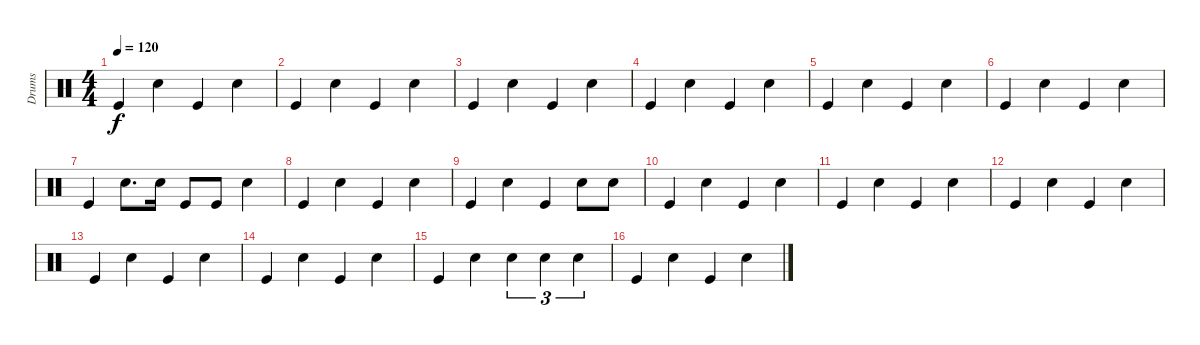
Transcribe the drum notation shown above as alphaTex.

\track ("Drums" "Drums") {instrument percussion}
\staff {score}
\articulation defaults
\ts (4 4)
\tempo 120
\clef neutral
\ks c "Kick (hit)".4{dy f} "Snare (hit) 2".4 "Kick (hit)".4 "Snare (hit) 2".4
|
"Kick (hit)".4 "Snare (hit) 2".4 "Kick (hit)".4 "Snare (hit) 2".4 |
"Kick (hit)".4 "Snare (hit) 2".4 "Kick (hit)".4 "Snare (hit) 2".4 |
"Kick (hit)".4 "Snare (hit) 2".4 "Kick (hit)".4 "Snare (hit) 2".4 |
"Kick (hit)".4 "Snare (hit) 2".4 "Kick (hit)".4 "Snare (hit) 2".4 |
"Kick (hit)".4 "Snare (hit) 2".4 "Kick (hit)".4 "Snare (hit) 2".4 |
"Kick (hit)".4 "Snare (hit) 2".8{d} "Snare (hit) 2".16 "Kick (hit)".8 "Kick (hit)".8 "Snare (hit) 2".4 |
"Kick (hit)".4 "Snare (hit) 2".4 "Kick (hit)".4 "Snare (hit) 2".4 |
"Kick (hit)".4 "Snare (hit) 2".4 "Kick (hit)".4 "Snare (hit) 2".8 "Snare (hit) 2".8 |
"Kick (hit)".4 "Snare (hit) 2".4 "Kick (hit)".4 "Snare (hit) 2".4 |
"Kick (hit)".4 "Snare (hit) 2".4 "Kick (hit)".4 "Snare (hit) 2".4 |
"Kick (hit)".4 "Snare (hit) 2".4 "Kick (hit)".4 "Snare (hit) 2".4 |
"Kick (hit)".4 "Snare (hit) 2".4 "Kick (hit)".4 "Snare (hit) 2".4 |
"Kick (hit)".4 "Snare (hit) 2".4 "Kick (hit)".4 "Snare (hit) 2".4 |
"Kick (hit)".4 "Snare (hit) 2".4 "Snare (hit) 2".4{tu (3 2)} "Snare (hit) 2".4{tu (3 2)} "Snare (hit) 2".4{tu (3 2)} |
"Kick (hit)".4 "Snare (hit) 2".4 "Kick (hit)".4 "Snare (hit) 2".4
